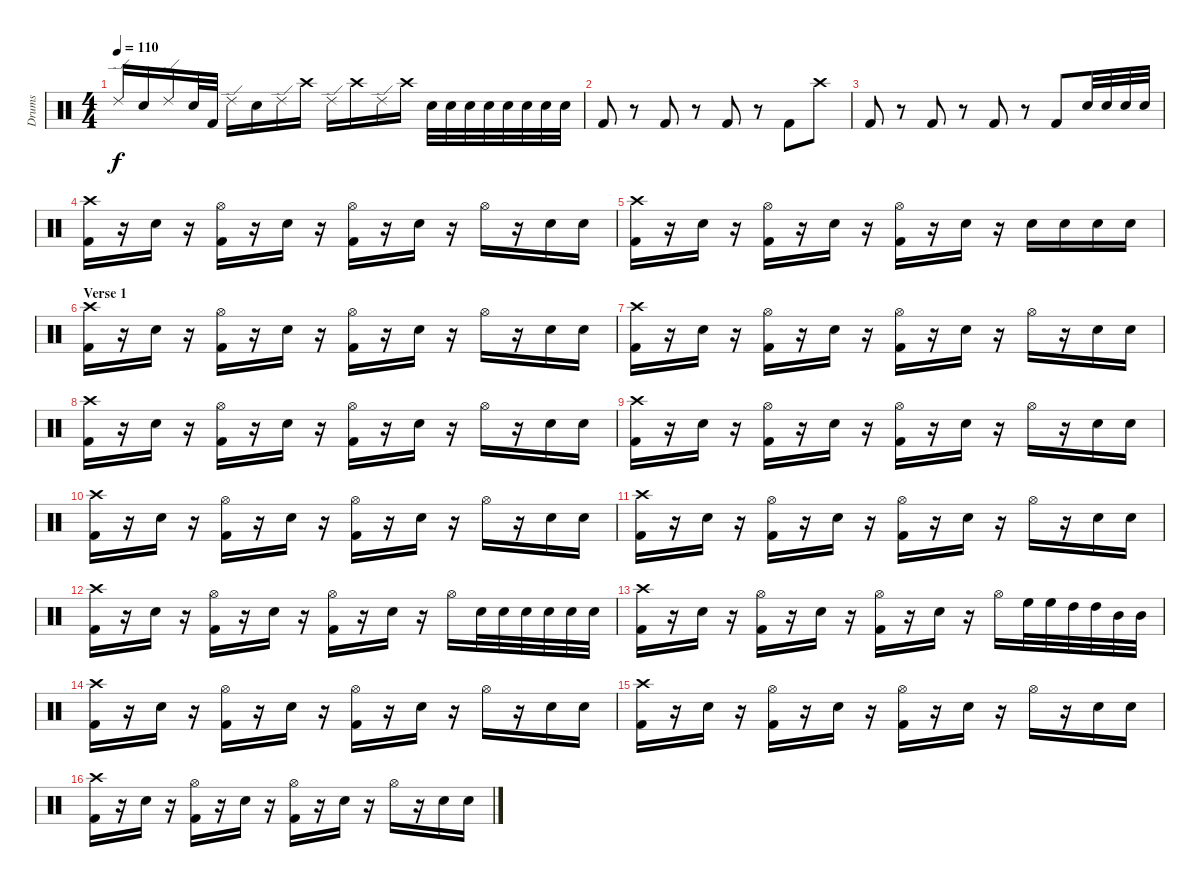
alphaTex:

\track ("Drums" "Drums") {instrument percussion}
\staff {score}
\articulation defaults
\ts (4 4)
\tempo 110
\clef neutral
\ks c "Ride (edge) 2".16{dy f} "Snare (hit) 2".16 "Ride (edge) 2".16 "Snare (hit) 2".32 "Kick (hit) 2".32 "Ride (edge) 2".16 "Snare (hit) 2".16 "Ride (edge) 2".16 "Crash high (hit)".16 "Ride (edge) 2".16 "Crash high (hit)".16 "Ride (edge) 2".16 "Crash high (hit)".16 "Snare (hit) 2".32 "Snare (hit) 2".32 "Snare (hit) 2".32 "Snare (hit) 2".32 "Snare (hit) 2".32 "Snare (hit) 2".32 "Snare (hit) 2".32 "Snare (hit) 2".32
|
"Kick (hit) 2".8 r.8 "Kick (hit) 2".8 r.8 "Kick (hit) 2".8 r.8 "Kick (hit) 2".8 "Crash high (hit)".8 |
"Kick (hit) 2".8 r.8 "Kick (hit) 2".8 r.8 "Kick (hit) 2".8 r.8 "Kick (hit) 2".8 "Snare (hit) 2".32 "Snare (hit) 2".32 "Snare (hit) 2".32 "Snare (hit) 2".32 |
("Crash high (hit)" "Kick (hit) 2").16 r.16 "Snare (hit) 2".16 r.16 ("Hi-Hat (open)" "Kick (hit) 2").16 r.16 "Snare (hit) 2".16 r.16 ("Hi-Hat (open)" "Kick (hit) 2").16 r.16 "Snare (hit) 2".16 r.16 "Hi-Hat (open)".16 r.16 "Snare (hit) 2".16 "Snare (hit) 2".16 |
("Crash high (hit)" "Kick (hit) 2").16 r.16 "Snare (hit) 2".16 r.16 ("Hi-Hat (open)" "Kick (hit) 2").16 r.16 "Snare (hit) 2".16 r.16 ("Hi-Hat (open)" "Kick (hit) 2").16 r.16 "Snare (hit) 2".16 r.16 "Snare (hit) 2".16 "Snare (hit) 2".16 "Snare (hit) 2".16 "Snare (hit) 2".16 |
\section ("" "Verse 1")
("Crash high (hit)" "Kick (hit) 2").16 r.16 "Snare (hit) 2".16 r.16 ("Hi-Hat (open)" "Kick (hit) 2").16 r.16 "Snare (hit) 2".16 r.16 ("Hi-Hat (open)" "Kick (hit) 2").16 r.16 "Snare (hit) 2".16 r.16 "Hi-Hat (open)".16 r.16 "Snare (hit) 2".16 "Snare (hit) 2".16 |
("Crash high (hit)" "Kick (hit) 2").16 r.16 "Snare (hit) 2".16 r.16 ("Hi-Hat (open)" "Kick (hit) 2").16 r.16 "Snare (hit) 2".16 r.16 ("Hi-Hat (open)" "Kick (hit) 2").16 r.16 "Snare (hit) 2".16 r.16 "Hi-Hat (open)".16 r.16 "Snare (hit) 2".16 "Snare (hit) 2".16 |
("Crash high (hit)" "Kick (hit) 2").16 r.16 "Snare (hit) 2".16 r.16 ("Hi-Hat (open)" "Kick (hit) 2").16 r.16 "Snare (hit) 2".16 r.16 ("Hi-Hat (open)" "Kick (hit) 2").16 r.16 "Snare (hit) 2".16 r.16 "Hi-Hat (open)".16 r.16 "Snare (hit) 2".16 "Snare (hit) 2".16 |
("Crash high (hit)" "Kick (hit) 2").16 r.16 "Snare (hit) 2".16 r.16 ("Hi-Hat (open)" "Kick (hit) 2").16 r.16 "Snare (hit) 2".16 r.16 ("Hi-Hat (open)" "Kick (hit) 2").16 r.16 "Snare (hit) 2".16 r.16 "Hi-Hat (open)".16 r.16 "Snare (hit) 2".16 "Snare (hit) 2".16 |
("Crash high (hit)" "Kick (hit) 2").16 r.16 "Snare (hit) 2".16 r.16 ("Hi-Hat (open)" "Kick (hit) 2").16 r.16 "Snare (hit) 2".16 r.16 ("Hi-Hat (open)" "Kick (hit) 2").16 r.16 "Snare (hit) 2".16 r.16 "Hi-Hat (open)".16 r.16 "Snare (hit) 2".16 "Snare (hit) 2".16 |
("Crash high (hit)" "Kick (hit) 2").16 r.16 "Snare (hit) 2".16 r.16 ("Hi-Hat (open)" "Kick (hit) 2").16 r.16 "Snare (hit) 2".16 r.16 ("Hi-Hat (open)" "Kick (hit) 2").16 r.16 "Snare (hit) 2".16 r.16 "Hi-Hat (open)".16 r.16 "Snare (hit) 2".16 "Snare (hit) 2".16 |
("Crash high (hit)" "Kick (hit) 2").16 r.16 "Snare (hit) 2".16 r.16 ("Hi-Hat (open)" "Kick (hit) 2").16 r.16 "Snare (hit) 2".16 r.16 ("Hi-Hat (open)" "Kick (hit) 2").16 r.16 "Snare (hit) 2".16 r.16 "Hi-Hat (open)".16 "Snare (hit) 2".32 "Snare (hit) 2".32 "Snare (hit) 2".32 "Snare (hit) 2".32 "Snare (hit) 2".32 "Snare (hit) 2".32 |
("Crash high (hit)" "Kick (hit) 2").16 r.16 "Snare (hit) 2".16 r.16 ("Hi-Hat (open)" "Kick (hit) 2").16 r.16 "Snare (hit) 2".16 r.16 ("Hi-Hat (open)" "Kick (hit) 2").16 r.16 "Snare (hit) 2".16 r.16 "Hi-Hat (open)".16 "High Floor Tom (hit)".32 "High Floor Tom (hit)".32 "High Tom (hit)".32 "High Tom (hit)".32 "Mid Tom (hit)".32 "Mid Tom (hit)".32 |
("Crash high (hit)" "Kick (hit) 2").16 r.16 "Snare (hit) 2".16 r.16 ("Hi-Hat (open)" "Kick (hit) 2").16 r.16 "Snare (hit) 2".16 r.16 ("Hi-Hat (open)" "Kick (hit) 2").16 r.16 "Snare (hit) 2".16 r.16 "Hi-Hat (open)".16 r.16 "Snare (hit) 2".16 "Snare (hit) 2".16 |
("Crash high (hit)" "Kick (hit) 2").16 r.16 "Snare (hit) 2".16 r.16 ("Hi-Hat (open)" "Kick (hit) 2").16 r.16 "Snare (hit) 2".16 r.16 ("Hi-Hat (open)" "Kick (hit) 2").16 r.16 "Snare (hit) 2".16 r.16 "Hi-Hat (open)".16 r.16 "Snare (hit) 2".16 "Snare (hit) 2".16 |
("Crash high (hit)" "Kick (hit) 2").16 r.16 "Snare (hit) 2".16 r.16 ("Hi-Hat (open)" "Kick (hit) 2").16 r.16 "Snare (hit) 2".16 r.16 ("Hi-Hat (open)" "Kick (hit) 2").16 r.16 "Snare (hit) 2".16 r.16 "Hi-Hat (open)".16 r.16 "Snare (hit) 2".16 "Snare (hit) 2".16
